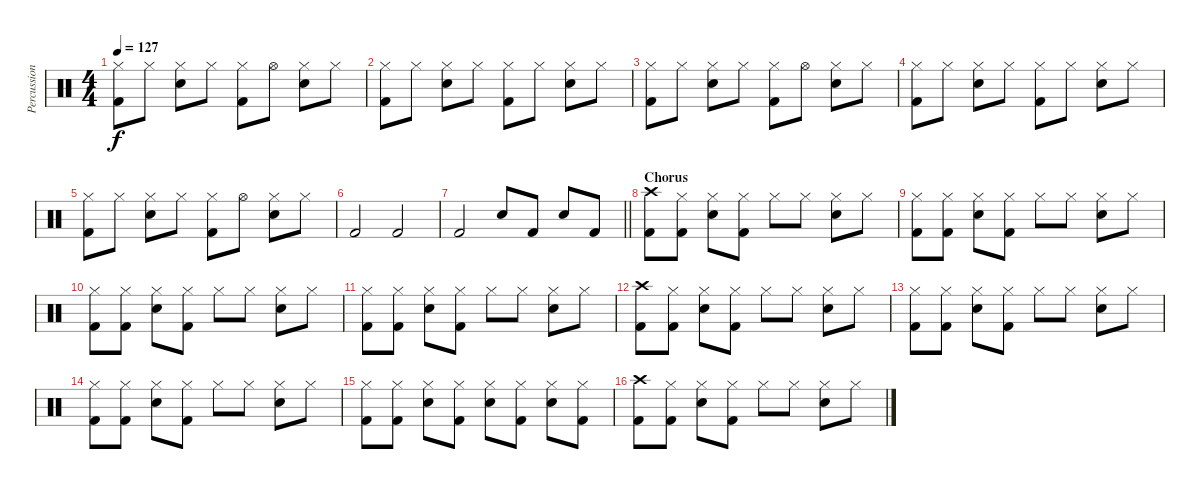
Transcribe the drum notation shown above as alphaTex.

\track ("Percussion" "Percussion") {instrument percussion}
\staff {score}
\articulation defaults
\ts (4 4)
\tempo 127
\clef neutral
\ks c
("Hi-Hat (closed)" "Kick (hit) 2").8{dy f} "Hi-Hat (closed)".8 ("Hi-Hat (closed)" "Snare (hit) 2").8 "Hi-Hat (closed)".8 ("Hi-Hat (closed)" "Kick (hit) 2").8 "Hi-Hat (open)".8 ("Hi-Hat (closed)" "Snare (hit) 2").8 "Hi-Hat (closed)".8 |
("Hi-Hat (closed)" "Kick (hit) 2").8 "Hi-Hat (closed)".8 ("Hi-Hat (closed)" "Snare (hit) 2").8 "Hi-Hat (closed)".8 ("Hi-Hat (closed)" "Kick (hit) 2").8 "Hi-Hat (closed)".8 ("Hi-Hat (closed)" "Snare (hit) 2").8 "Hi-Hat (closed)".8 |
("Hi-Hat (closed)" "Kick (hit) 2").8 "Hi-Hat (closed)".8 ("Hi-Hat (closed)" "Snare (hit) 2").8 "Hi-Hat (closed)".8 ("Hi-Hat (closed)" "Kick (hit) 2").8 "Hi-Hat (open)".8 ("Hi-Hat (closed)" "Snare (hit) 2").8 "Hi-Hat (closed)".8 |
("Hi-Hat (closed)" "Kick (hit) 2").8 "Hi-Hat (closed)".8 ("Hi-Hat (closed)" "Snare (hit) 2").8 "Hi-Hat (closed)".8 ("Hi-Hat (closed)" "Kick (hit) 2").8 "Hi-Hat (closed)".8 ("Hi-Hat (closed)" "Snare (hit) 2").8 "Hi-Hat (closed)".8 |
("Hi-Hat (closed)" "Kick (hit) 2").8 "Hi-Hat (closed)".8 ("Hi-Hat (closed)" "Snare (hit) 2").8 "Hi-Hat (closed)".8 ("Hi-Hat (closed)" "Kick (hit) 2").8 "Hi-Hat (open)".8 ("Hi-Hat (closed)" "Snare (hit) 2").8 "Hi-Hat (closed)".8 |
"Kick (hit) 2".2 "Kick (hit) 2".2 |
\barLineRight lightlight "Kick (hit) 2".2 "Snare (hit) 2".8 "Kick (hit) 2".8 "Snare (hit) 2".8 "Kick (hit) 2".8
|
\section ("" "Chorus")
("Crash high (hit)" "Kick (hit) 2").8 ("Hi-Hat (closed)" "Kick (hit) 2").8 ("Hi-Hat (closed)" "Snare (hit) 2").8 ("Hi-Hat (closed)" "Kick (hit) 2").8 "Hi-Hat (closed)".8 "Hi-Hat (closed)".8 ("Hi-Hat (closed)" "Snare (hit) 2").8 "Hi-Hat (closed)".8 |
("Hi-Hat (closed)" "Kick (hit) 2").8 ("Hi-Hat (closed)" "Kick (hit) 2").8 ("Hi-Hat (closed)" "Snare (hit) 2").8 ("Hi-Hat (closed)" "Kick (hit) 2").8 "Hi-Hat (closed)".8 "Hi-Hat (closed)".8 ("Hi-Hat (closed)" "Snare (hit) 2").8 "Hi-Hat (closed)".8 |
("Hi-Hat (closed)" "Kick (hit) 2").8 ("Hi-Hat (closed)" "Kick (hit) 2").8 ("Hi-Hat (closed)" "Snare (hit) 2").8 ("Hi-Hat (closed)" "Kick (hit) 2").8 "Hi-Hat (closed)".8 "Hi-Hat (closed)".8 ("Hi-Hat (closed)" "Snare (hit) 2").8 "Hi-Hat (closed)".8 |
("Hi-Hat (closed)" "Kick (hit) 2").8 ("Hi-Hat (closed)" "Kick (hit) 2").8 ("Hi-Hat (closed)" "Snare (hit) 2").8 ("Hi-Hat (closed)" "Kick (hit) 2").8 "Hi-Hat (closed)".8 "Hi-Hat (closed)".8 ("Hi-Hat (closed)" "Snare (hit) 2").8 "Hi-Hat (closed)".8 |
("Crash high (hit)" "Kick (hit) 2").8 ("Hi-Hat (closed)" "Kick (hit) 2").8 ("Hi-Hat (closed)" "Snare (hit) 2").8 ("Hi-Hat (closed)" "Kick (hit) 2").8 "Hi-Hat (closed)".8 "Hi-Hat (closed)".8 ("Hi-Hat (closed)" "Snare (hit) 2").8 "Hi-Hat (closed)".8 |
("Hi-Hat (closed)" "Kick (hit) 2").8 ("Hi-Hat (closed)" "Kick (hit) 2").8 ("Hi-Hat (closed)" "Snare (hit) 2").8 ("Hi-Hat (closed)" "Kick (hit) 2").8 "Hi-Hat (closed)".8 "Hi-Hat (closed)".8 ("Hi-Hat (closed)" "Snare (hit) 2").8 "Hi-Hat (closed)".8 |
("Hi-Hat (closed)" "Kick (hit) 2").8 ("Hi-Hat (closed)" "Kick (hit) 2").8 ("Hi-Hat (closed)" "Snare (hit) 2").8 ("Hi-Hat (closed)" "Kick (hit) 2").8 "Hi-Hat (closed)".8 "Hi-Hat (closed)".8 ("Hi-Hat (closed)" "Snare (hit) 2").8 "Hi-Hat (closed)".8 |
("Hi-Hat (closed)" "Kick (hit) 2").8 ("Hi-Hat (closed)" "Kick (hit) 2").8 ("Hi-Hat (closed)" "Snare (hit) 2").8 ("Hi-Hat (closed)" "Kick (hit) 2").8 ("Hi-Hat (closed)" "Snare (hit) 2").8 ("Hi-Hat (closed)" "Kick (hit) 2").8 ("Hi-Hat (closed)" "Snare (hit) 2").8 ("Hi-Hat (closed)" "Kick (hit) 2").8 |
("Crash high (hit)" "Kick (hit) 2").8 ("Hi-Hat (closed)" "Kick (hit) 2").8 ("Hi-Hat (closed)" "Snare (hit) 2").8 ("Hi-Hat (closed)" "Kick (hit) 2").8 "Hi-Hat (closed)".8 "Hi-Hat (closed)".8 ("Hi-Hat (closed)" "Snare (hit) 2").8 "Hi-Hat (closed)".8
